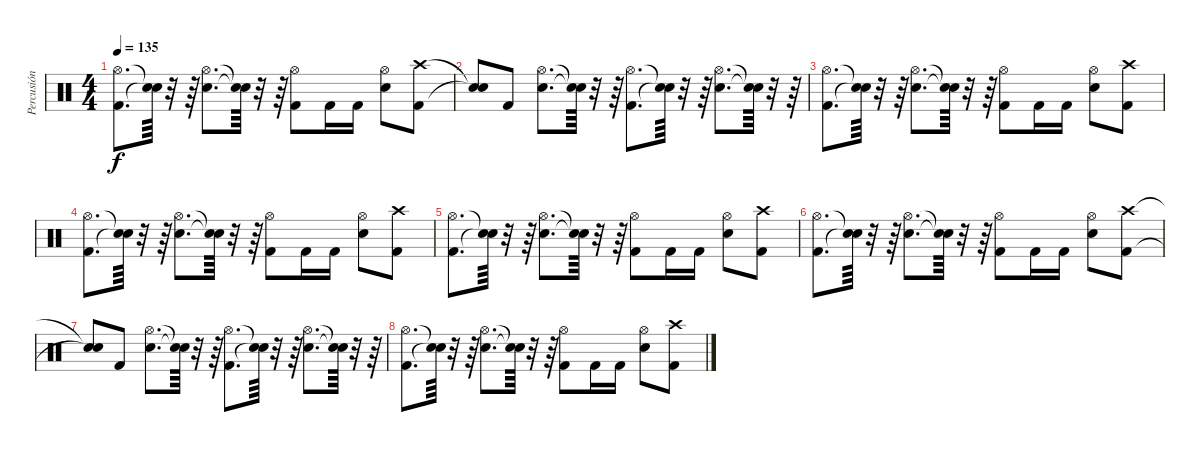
\track ("Percusión" "Percusión") {instrument percussion}
\staff {score}
\articulation defaults
\ts (4 4)
\tempo 135
\clef neutral
\ks c
("Kick (hit) 2" "Hi-Hat (open)").8{d dy f} ("Snare (hit)"{t} "Snare (hit)"{t}).64 r.32 r.64 ("Snare (hit) 2" "Hi-Hat (open)").8{d} ("Snare (hit)"{t} "Snare (hit)"{t}).64 r.32 r.64 ("Kick (hit) 2" "Hi-Hat (open)").8 "Kick (hit) 2".16 "Kick (hit) 2".16 ("Snare (hit) 2" "Hi-Hat (open)").8 ("Kick (hit) 2" "Crash high (hit)").8 |
("Snare (hit)"{t} "Snare (hit)"{t}).8 "Kick (hit) 2".8 ("Snare (hit) 2" "Hi-Hat (open)").8{d} ("Snare (hit)"{t} "Snare (hit)"{t}).64 r.32 r.64 ("Kick (hit) 2" "Hi-Hat (open)").8{d} ("Snare (hit)"{t} "Snare (hit)"{t}).64 r.32 r.64 ("Snare (hit) 2" "Hi-Hat (open)").8{d} ("Snare (hit)"{t} "Snare (hit)"{t}).64 r.32 r.64 |
("Kick (hit) 2" "Hi-Hat (open)").8{d} ("Snare (hit)"{t} "Snare (hit)"{t}).64 r.32 r.64 ("Snare (hit) 2" "Hi-Hat (open)").8{d} ("Snare (hit)"{t} "Snare (hit)"{t}).64 r.32 r.64 ("Kick (hit) 2" "Hi-Hat (open)").8 "Kick (hit) 2".16 "Kick (hit) 2".16 ("Snare (hit) 2" "Hi-Hat (open)").8 ("Kick (hit) 2" "Crash high (hit)").8 |
("Kick (hit) 2" "Hi-Hat (open)").8{d} ("Snare (hit)"{t} "Snare (hit)"{t}).64 r.32 r.64 ("Snare (hit) 2" "Hi-Hat (open)").8{d} ("Snare (hit)"{t} "Snare (hit)"{t}).64 r.32 r.64 ("Kick (hit) 2" "Hi-Hat (open)").8 "Kick (hit) 2".16 "Kick (hit) 2".16 ("Snare (hit) 2" "Hi-Hat (open)").8 ("Kick (hit) 2" "Crash high (hit)").8 |
("Kick (hit) 2" "Hi-Hat (open)").8{d} ("Snare (hit)"{t} "Snare (hit)"{t}).64 r.32 r.64 ("Snare (hit) 2" "Hi-Hat (open)").8{d} ("Snare (hit)"{t} "Snare (hit)"{t}).64 r.32 r.64 ("Kick (hit) 2" "Hi-Hat (open)").8 "Kick (hit) 2".16 "Kick (hit) 2".16 ("Snare (hit) 2" "Hi-Hat (open)").8 ("Kick (hit) 2" "Crash high (hit)").8 |
("Kick (hit) 2" "Hi-Hat (open)").8{d} ("Snare (hit)"{t} "Snare (hit)"{t}).64 r.32 r.64 ("Snare (hit) 2" "Hi-Hat (open)").8{d} ("Snare (hit)"{t} "Snare (hit)"{t}).64 r.32 r.64 ("Kick (hit) 2" "Hi-Hat (open)").8 "Kick (hit) 2".16 "Kick (hit) 2".16 ("Snare (hit) 2" "Hi-Hat (open)").8 ("Kick (hit) 2" "Crash high (hit)").8 |
("Snare (hit)"{t} "Snare (hit)"{t}).8 "Kick (hit) 2".8 ("Snare (hit) 2" "Hi-Hat (open)").8{d} ("Snare (hit)"{t} "Snare (hit)"{t}).64 r.32 r.64 ("Kick (hit) 2" "Hi-Hat (open)").8{d} ("Snare (hit)"{t} "Snare (hit)"{t}).64 r.32 r.64 ("Snare (hit) 2" "Hi-Hat (open)").8{d} ("Snare (hit)"{t} "Snare (hit)"{t}).64 r.32 r.64 |
("Kick (hit) 2" "Hi-Hat (open)").8{d} ("Snare (hit)"{t} "Snare (hit)"{t}).64 r.32 r.64 ("Snare (hit) 2" "Hi-Hat (open)").8{d} ("Snare (hit)"{t} "Snare (hit)"{t}).64 r.32 r.64 ("Kick (hit) 2" "Hi-Hat (open)").8 "Kick (hit) 2".16 "Kick (hit) 2".16 ("Snare (hit) 2" "Hi-Hat (open)").8 ("Kick (hit) 2" "Crash high (hit)").8
